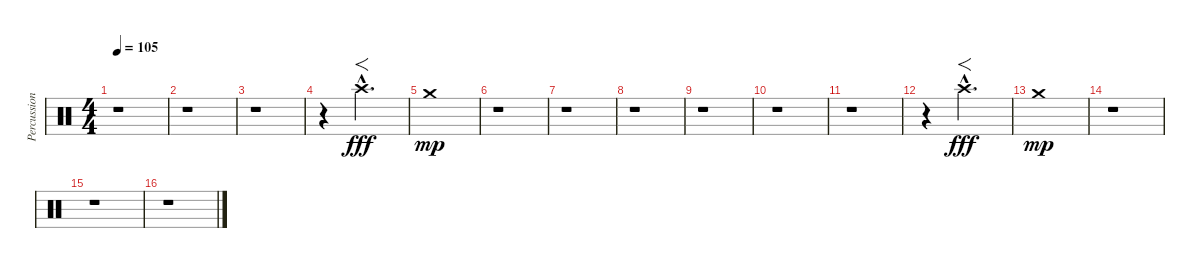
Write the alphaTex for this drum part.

\track ("Percussion" "Percussion") {instrument percussion}
\staff {score}
\articulation defaults
\ts (4 4)
\tempo 105
\clef neutral
\ks c
r.1{dy mp} |
r.1 |
r.1 |
r.4 "Crash high (hit)"{hac}.2{f d dy fff} |
"Crash medium (hit)".1{dy mp} |
r.1 |
r.1 |
r.1 |
r.1 |
r.1 |
r.1 |
r.4 "Crash high (hit)"{hac}.2{f d dy fff} |
"Crash medium (hit)".1{dy mp} |
r.1 |
r.1 |
r.1
